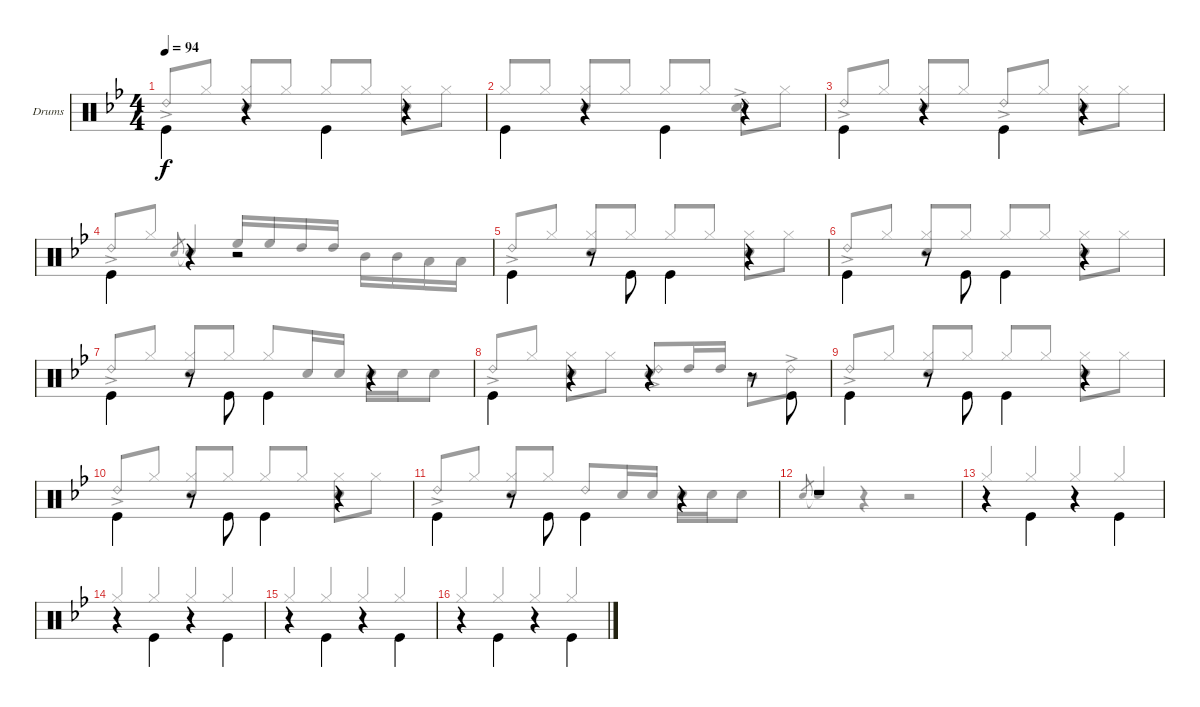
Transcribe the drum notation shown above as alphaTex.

\bracketExtendMode groupsimilarinstruments
\firstSystemTrackNameOrientation horizontal
\otherSystemsTrackNameOrientation horizontal
\track ("Drum" "Drums") {instrument percussion}
\staff {score}
\articulation defaults
\voice
\ts (4 4)
\tempo 94
\clef neutral
\scale
1.04918
\ks bb "Kick (hit)".4{dy f beam invert}
r.4{beam invert} "Kick (hit)".4{beam invert} r.4 |
\scale
0.95082 "Kick (hit)".4{beam invert} r.4{beam invert} "Kick (hit)".4{beam invert} r.4 |
\scale
1.04918 "Kick (hit)".4{beam invert} r.4{beam invert} "Kick (hit)".4{beam invert} r.4 |
\scale
0.95082 "Kick (hit)".4{beam invert} r.4{beam invert} r.2 |
\scale
1.07945 "Kick (hit)".4{beam invert} r.8 "Kick (hit)".8{beam invert} "Kick (hit)".4{beam invert} r.4 |
\scale
0.920555 "Kick (hit)".4{beam invert} r.8 "Kick (hit)".8{beam invert} "Kick (hit)".4{beam invert} r.4 |
\scale
1.04918 "Kick (hit)".4{beam invert} r.8 "Kick (hit)".8{beam invert} "Kick (hit)".4{beam invert} r.4 |
\scale
0.95082 "Kick (hit)".4{beam invert} r.4 r.4{beam invert} r.8{beam invert} "Kick (hit)".8{beam invert} |
\scale
1.04918 "Kick (hit)".4{beam invert} r.8 "Kick (hit)".8{beam invert} "Kick (hit)".4{beam invert} r.4 |
\scale
0.95082 "Kick (hit)".4{beam invert} r.8 "Kick (hit)".8{beam invert} "Kick (hit)".4{beam invert} r.4 |
\scale
1.04918 "Kick (hit)".4{beam invert} r.8 "Kick (hit)".8{beam invert} "Kick (hit)".4{beam invert} r.4 |
\scale
0.95082 r.1 |
\scale
1.04918 r.4 "Kick (hit)".4{beam invert} r.4{beam invert} "Kick (hit)".4{beam invert} |
\scale
0.95082 r.4 "Kick (hit)".4{beam invert} r.4{beam invert} "Kick (hit)".4{beam invert} |
\scale
1.04918 r.4 "Kick (hit)".4{beam invert} r.4{beam invert} "Kick (hit)".4{beam invert} |
\scale
0.95082 r.4 "Kick (hit)".4{beam invert} r.4{beam invert} "Kick (hit)".4{beam invert}
\voice
\clef neutral
\ottava regular
\simile none
\scale
1.04918
\ks bb "Ride (bell) 2"{ac}.8{dy f beam invert} "Hi-Hat (closed)".8
("Hi-Hat (closed)" "Snare (hit) 2").8 "Hi-Hat (closed)".8 "Hi-Hat (closed)".8{beam invert} "Hi-Hat (closed)".8 ("Hi-Hat (closed)" "Snare (hit) 2").8 "Hi-Hat (closed)".8 |
\scale
0.95082 "Hi-Hat (closed)".8{beam invert} "Hi-Hat (closed)".8 ("Hi-Hat (closed)" "Snare (hit) 2").8 "Hi-Hat (closed)".8 "Hi-Hat (closed)".8{beam invert} "Hi-Hat (closed)".8 ("Snare (hit) 2" "Ride (bell) 2"{ac}).8 "Hi-Hat (closed)".8 |
\scale
1.04918 "Ride (bell) 2"{ac}.8{beam invert} "Hi-Hat (closed)".8 ("Hi-Hat (closed)" "Snare (hit) 2").8 "Hi-Hat (closed)".8 "Ride (bell) 2"{ac}.8{beam invert} "Hi-Hat (closed)".8 ("Hi-Hat (closed)" "Snare (hit) 2").8 "Hi-Hat (closed)".8 |
\scale
0.95082 "Ride (bell) 2"{ac}.8{beam invert} "Hi-Hat (closed)".8 "Snare (hit) 2".8{gr beam invert} "Snare (hit) 2"{t}.4{beam invert} "High Floor Tom (hit)".16{beam invert} "High Floor Tom (hit)".16 "High Tom (hit)".16 "High Tom (hit)".16 "Mid Tom (hit)".16 "Mid Tom (hit)".16 "Low Tom (hit)".16 "Low Tom (hit)".16 |
\scale
1.07945 "Ride (bell) 2"{ac}.8{beam invert} "Hi-Hat (closed)".8 ("Hi-Hat (closed)" "Snare (hit) 2").8 "Hi-Hat (closed)".8 "Hi-Hat (closed)".8{beam invert} "Hi-Hat (closed)".8 ("Hi-Hat (closed)" "Snare (hit) 2").8 "Hi-Hat (closed)".8 |
\scale
0.920555 "Ride (bell) 2"{ac}.8{beam invert} "Hi-Hat (closed)".8 ("Hi-Hat (closed)" "Snare (hit) 2").8 "Hi-Hat (closed)".8 "Hi-Hat (closed)".8{beam invert} "Hi-Hat (closed)".8 ("Hi-Hat (closed)" "Snare (hit) 2").8 "Hi-Hat (closed)".8 |
\scale
1.04918 "Ride (bell) 2"{ac}.8{beam invert} "Hi-Hat (closed)".8 ("Hi-Hat (closed)" "Snare (hit) 2").8 "Hi-Hat (closed)".8 "Hi-Hat (closed)".8{beam invert} "Snare (hit) 2".16 "Snare (hit) 2".16 "Snare (hit) 2".16 "Snare (hit) 2".16 "Snare (hit) 2".8 |
\scale
0.95082 "Ride (bell) 2"{ac}.8{beam invert} "Hi-Hat (closed)".8 ("Hi-Hat (closed)" "Snare (hit) 2").8 "Hi-Hat (closed)".8 ("Snare (hit) 2" "Ride (bell) 2"{ac}).8 "High Tom (hit)".16 "High Tom (hit)".16{beam invert} "Mid Tom (hit)".8 "Ride (bell) 2"{ac}.8 |
\scale
1.04918 "Ride (bell) 2"{ac}.8{beam invert} "Hi-Hat (closed)".8 ("Hi-Hat (closed)" "Snare (hit) 2").8 "Hi-Hat (closed)".8 "Hi-Hat (closed)".8{beam invert} "Hi-Hat (closed)".8 ("Hi-Hat (closed)" "Snare (hit) 2").8 "Hi-Hat (closed)".8 |
\scale
0.95082 "Ride (bell) 2"{ac}.8{beam invert} "Hi-Hat (closed)".8 ("Hi-Hat (closed)" "Snare (hit) 2").8 "Hi-Hat (closed)".8 "Hi-Hat (closed)".8{beam invert} "Hi-Hat (closed)".8 ("Hi-Hat (closed)" "Snare (hit) 2").8 "Hi-Hat (closed)".8 |
\scale
1.04918 "Ride (bell) 2"{ac}.8{beam invert} "Hi-Hat (closed)".8 ("Hi-Hat (closed)" "Snare (hit) 2").8 "Hi-Hat (closed)".8 "Ride (bell) 2".8{beam invert} "Snare (hit) 2".16 "Snare (hit) 2".16 "Snare (hit) 2".16 "Snare (hit) 2".16 "Snare (hit) 2".8 |
\scale
0.95082 "Snare (hit) 2".8{gr beam invert} "Snare (hit) 2"{t}.4{beam invert} r.4 r.2 |
\scale
1.04918 "Hi-Hat (closed)".4{beam invert} "Hi-Hat (closed)".4{beam invert} "Hi-Hat (closed)".4{beam invert} "Hi-Hat (closed)".4{beam invert} |
\scale
0.95082 "Hi-Hat (closed)".4{beam invert} "Hi-Hat (closed)".4{beam invert} "Hi-Hat (closed)".4{beam invert} "Hi-Hat (closed)".4{beam invert} |
\scale
1.04918 "Hi-Hat (closed)".4{beam invert} "Hi-Hat (closed)".4{beam invert} "Hi-Hat (closed)".4{beam invert} "Hi-Hat (closed)".4{beam invert} |
\scale
0.95082 "Hi-Hat (closed)".4{beam invert} "Hi-Hat (closed)".4{beam invert} "Hi-Hat (closed)".4{beam invert} "Hi-Hat (closed)".4{beam invert}
